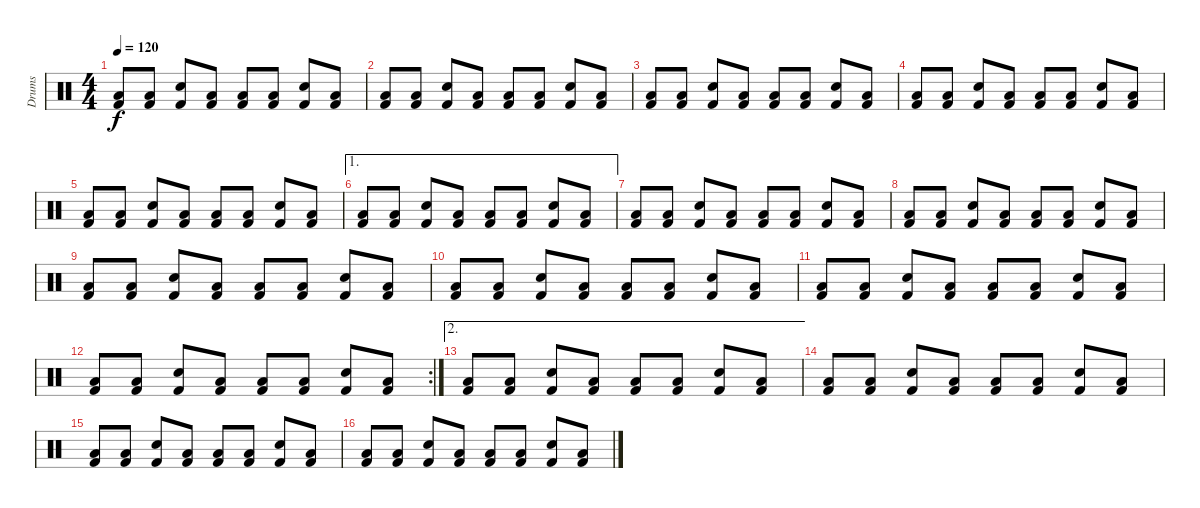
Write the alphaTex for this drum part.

\track ("Drums" "Drums") {instrument percussion}
\staff {score}
\articulation defaults
\ts (4 4)
\tempo 120
\clef neutral
\ks c
("Kick (hit) 2" "Low Floor Tom (hit)").8{dy f} ("Kick (hit) 2" "Low Floor Tom (hit)").8 ("Kick (hit) 2" "Snare (hit) 2").8 ("Kick (hit) 2" "Low Floor Tom (hit)").8 ("Kick (hit) 2" "Low Floor Tom (hit)").8 ("Kick (hit) 2" "Low Floor Tom (hit)").8 ("Kick (hit) 2" "Snare (hit) 2").8 ("Kick (hit) 2" "Low Floor Tom (hit)").8 |
("Kick (hit) 2" "Low Floor Tom (hit)").8 ("Kick (hit) 2" "Low Floor Tom (hit)").8 ("Kick (hit) 2" "Snare (hit) 2").8 ("Kick (hit) 2" "Low Floor Tom (hit)").8 ("Kick (hit) 2" "Low Floor Tom (hit)").8 ("Kick (hit) 2" "Low Floor Tom (hit)").8 ("Kick (hit) 2" "Snare (hit) 2").8 ("Kick (hit) 2" "Low Floor Tom (hit)").8 |
("Kick (hit) 2" "Low Floor Tom (hit)").8 ("Kick (hit) 2" "Low Floor Tom (hit)").8 ("Kick (hit) 2" "Snare (hit) 2").8 ("Kick (hit) 2" "Low Floor Tom (hit)").8 ("Kick (hit) 2" "Low Floor Tom (hit)").8 ("Kick (hit) 2" "Low Floor Tom (hit)").8 ("Kick (hit) 2" "Snare (hit) 2").8 ("Kick (hit) 2" "Low Floor Tom (hit)").8 |
("Kick (hit) 2" "Low Floor Tom (hit)").8 ("Kick (hit) 2" "Low Floor Tom (hit)").8 ("Kick (hit) 2" "Snare (hit) 2").8 ("Kick (hit) 2" "Low Floor Tom (hit)").8 ("Kick (hit) 2" "Low Floor Tom (hit)").8 ("Kick (hit) 2" "Low Floor Tom (hit)").8 ("Kick (hit) 2" "Snare (hit) 2").8 ("Kick (hit) 2" "Low Floor Tom (hit)").8 |
("Kick (hit) 2" "Low Floor Tom (hit)").8 ("Kick (hit) 2" "Low Floor Tom (hit)").8 ("Kick (hit) 2" "Snare (hit) 2").8 ("Kick (hit) 2" "Low Floor Tom (hit)").8 ("Kick (hit) 2" "Low Floor Tom (hit)").8 ("Kick (hit) 2" "Low Floor Tom (hit)").8 ("Kick (hit) 2" "Snare (hit) 2").8 ("Kick (hit) 2" "Low Floor Tom (hit)").8 |
\ae 1
("Kick (hit) 2" "Low Floor Tom (hit)").8 ("Kick (hit) 2" "Low Floor Tom (hit)").8 ("Kick (hit) 2" "Snare (hit) 2").8 ("Kick (hit) 2" "Low Floor Tom (hit)").8 ("Kick (hit) 2" "Low Floor Tom (hit)").8 ("Kick (hit) 2" "Low Floor Tom (hit)").8 ("Kick (hit) 2" "Snare (hit) 2").8 ("Kick (hit) 2" "Low Floor Tom (hit)").8 |
("Kick (hit) 2" "Low Floor Tom (hit)").8 ("Kick (hit) 2" "Low Floor Tom (hit)").8 ("Kick (hit) 2" "Snare (hit) 2").8 ("Kick (hit) 2" "Low Floor Tom (hit)").8 ("Kick (hit) 2" "Low Floor Tom (hit)").8 ("Kick (hit) 2" "Low Floor Tom (hit)").8 ("Kick (hit) 2" "Snare (hit) 2").8 ("Kick (hit) 2" "Low Floor Tom (hit)").8 |
("Kick (hit) 2" "Low Floor Tom (hit)").8 ("Kick (hit) 2" "Low Floor Tom (hit)").8 ("Kick (hit) 2" "Snare (hit) 2").8 ("Kick (hit) 2" "Low Floor Tom (hit)").8 ("Kick (hit) 2" "Low Floor Tom (hit)").8 ("Kick (hit) 2" "Low Floor Tom (hit)").8 ("Kick (hit) 2" "Snare (hit) 2").8 ("Kick (hit) 2" "Low Floor Tom (hit)").8 |
("Kick (hit) 2" "Low Floor Tom (hit)").8 ("Kick (hit) 2" "Low Floor Tom (hit)").8 ("Kick (hit) 2" "Snare (hit) 2").8 ("Kick (hit) 2" "Low Floor Tom (hit)").8 ("Kick (hit) 2" "Low Floor Tom (hit)").8 ("Kick (hit) 2" "Low Floor Tom (hit)").8 ("Kick (hit) 2" "Snare (hit) 2").8 ("Kick (hit) 2" "Low Floor Tom (hit)").8 |
("Kick (hit) 2" "Low Floor Tom (hit)").8 ("Kick (hit) 2" "Low Floor Tom (hit)").8 ("Kick (hit) 2" "Snare (hit) 2").8 ("Kick (hit) 2" "Low Floor Tom (hit)").8 ("Kick (hit) 2" "Low Floor Tom (hit)").8 ("Kick (hit) 2" "Low Floor Tom (hit)").8 ("Kick (hit) 2" "Snare (hit) 2").8 ("Kick (hit) 2" "Low Floor Tom (hit)").8 |
("Kick (hit) 2" "Low Floor Tom (hit)").8 ("Kick (hit) 2" "Low Floor Tom (hit)").8 ("Kick (hit) 2" "Snare (hit) 2").8 ("Kick (hit) 2" "Low Floor Tom (hit)").8 ("Kick (hit) 2" "Low Floor Tom (hit)").8 ("Kick (hit) 2" "Low Floor Tom (hit)").8 ("Kick (hit) 2" "Snare (hit) 2").8 ("Kick (hit) 2" "Low Floor Tom (hit)").8 |
\rc 2
("Kick (hit) 2" "Low Floor Tom (hit)").8 ("Kick (hit) 2" "Low Floor Tom (hit)").8 ("Kick (hit) 2" "Snare (hit) 2").8 ("Kick (hit) 2" "Low Floor Tom (hit)").8 ("Kick (hit) 2" "Low Floor Tom (hit)").8 ("Kick (hit) 2" "Low Floor Tom (hit)").8 ("Kick (hit) 2" "Snare (hit) 2").8 ("Kick (hit) 2" "Low Floor Tom (hit)").8 |
\ae 2
("Kick (hit) 2" "Low Floor Tom (hit)").8 ("Kick (hit) 2" "Low Floor Tom (hit)").8 ("Kick (hit) 2" "Snare (hit) 2").8 ("Kick (hit) 2" "Low Floor Tom (hit)").8 ("Kick (hit) 2" "Low Floor Tom (hit)").8 ("Kick (hit) 2" "Low Floor Tom (hit)").8 ("Kick (hit) 2" "Snare (hit) 2").8 ("Kick (hit) 2" "Low Floor Tom (hit)").8 |
("Kick (hit) 2" "Low Floor Tom (hit)").8 ("Kick (hit) 2" "Low Floor Tom (hit)").8 ("Kick (hit) 2" "Snare (hit) 2").8 ("Kick (hit) 2" "Low Floor Tom (hit)").8 ("Kick (hit) 2" "Low Floor Tom (hit)").8 ("Kick (hit) 2" "Low Floor Tom (hit)").8 ("Kick (hit) 2" "Snare (hit) 2").8 ("Kick (hit) 2" "Low Floor Tom (hit)").8 |
("Kick (hit) 2" "Low Floor Tom (hit)").8 ("Kick (hit) 2" "Low Floor Tom (hit)").8 ("Kick (hit) 2" "Snare (hit) 2").8 ("Kick (hit) 2" "Low Floor Tom (hit)").8 ("Kick (hit) 2" "Low Floor Tom (hit)").8 ("Kick (hit) 2" "Low Floor Tom (hit)").8 ("Kick (hit) 2" "Snare (hit) 2").8 ("Kick (hit) 2" "Low Floor Tom (hit)").8 |
("Kick (hit) 2" "Low Floor Tom (hit)").8 ("Kick (hit) 2" "Low Floor Tom (hit)").8 ("Kick (hit) 2" "Snare (hit) 2").8 ("Kick (hit) 2" "Low Floor Tom (hit)").8 ("Kick (hit) 2" "Low Floor Tom (hit)").8 ("Kick (hit) 2" "Low Floor Tom (hit)").8 ("Kick (hit) 2" "Snare (hit) 2").8 ("Kick (hit) 2" "Low Floor Tom (hit)").8
